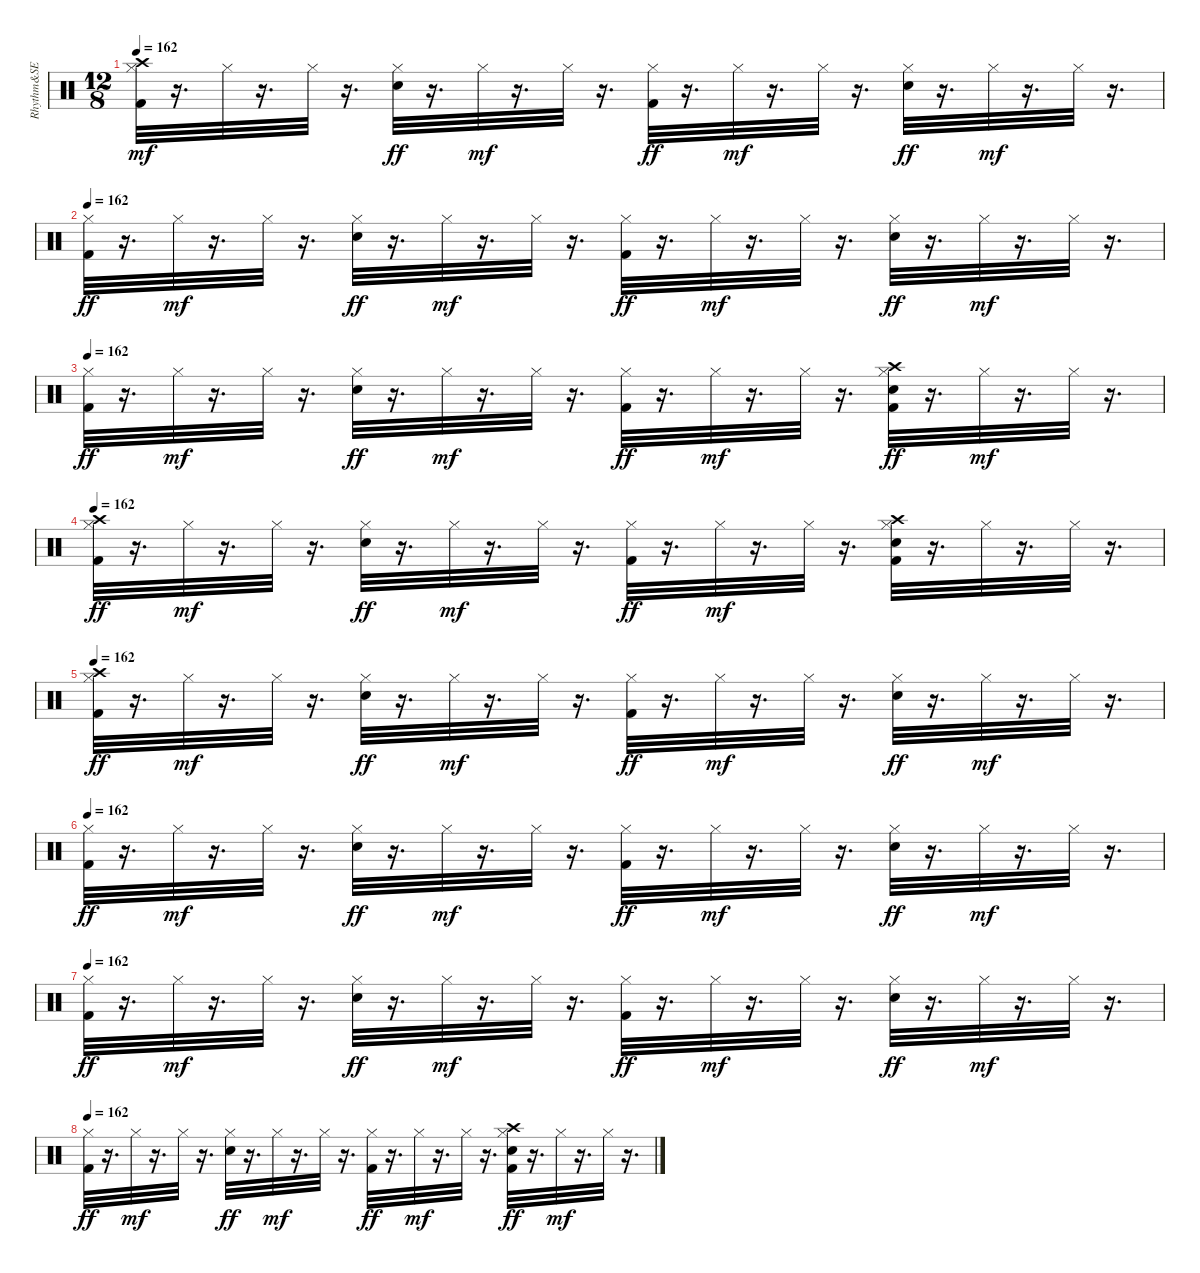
\track ("Rhythm&SE" "Rhythm&SE") {instrument percussion}
\staff {score}
\articulation defaults
\ts (12 8)
\tempo 162
\clef neutral
\ks c
("Kick (hit) 2" "Hi-Hat (closed)" "Crash high (hit)").32{dy mf volume 14 balance 8} r.16{d} "Hi-Hat (closed)".32 r.16{d} "Hi-Hat (closed)".32{volume 14} r.16{d} ("Snare (hit) 2" "Hi-Hat (closed)").32{dy ff} r.16{d} "Hi-Hat (closed)".32{dy mf} r.16{d} "Hi-Hat (closed)".32 r.16{d} ("Kick (hit) 2" "Hi-Hat (closed)").32{dy ff} r.16{d} "Hi-Hat (closed)".32{dy mf} r.16{d} "Hi-Hat (closed)".32 r.16{d} ("Snare (hit) 2" "Hi-Hat (closed)").32{dy ff} r.16{d} "Hi-Hat (closed)".32{dy mf} r.16{d} "Hi-Hat (closed)".32 r.16{d} |
\tempo 162
("Kick (hit) 2" "Hi-Hat (closed)").32{dy ff volume 14 balance 8} r.16{d} "Hi-Hat (closed)".32{dy mf} r.16{d} "Hi-Hat (closed)".32{volume 14} r.16{d} ("Snare (hit) 2" "Hi-Hat (closed)").32{dy ff} r.16{d} "Hi-Hat (closed)".32{dy mf} r.16{d} "Hi-Hat (closed)".32 r.16{d} ("Kick (hit) 2" "Hi-Hat (closed)").32{dy ff} r.16{d} "Hi-Hat (closed)".32{dy mf} r.16{d} "Hi-Hat (closed)".32 r.16{d} ("Snare (hit) 2" "Hi-Hat (closed)").32{dy ff} r.16{d} "Hi-Hat (closed)".32{dy mf} r.16{d} "Hi-Hat (closed)".32 r.16{d} |
\tempo 162
("Kick (hit) 2" "Hi-Hat (closed)").32{dy ff volume 14 balance 8} r.16{d} "Hi-Hat (closed)".32{dy mf} r.16{d} "Hi-Hat (closed)".32{volume 14} r.16{d} ("Snare (hit) 2" "Hi-Hat (closed)").32{dy ff} r.16{d} "Hi-Hat (closed)".32{dy mf} r.16{d} "Hi-Hat (closed)".32 r.16{d} ("Kick (hit) 2" "Hi-Hat (closed)").32{dy ff} r.16{d} "Hi-Hat (closed)".32{dy mf} r.16{d} "Hi-Hat (closed)".32 r.16{d} ("Snare (hit) 2" "Hi-Hat (closed)" "Kick (hit) 2" "Crash high (hit)").32{dy ff} r.16{d} "Hi-Hat (closed)".32{dy mf} r.16{d} "Hi-Hat (closed)".32 r.16{d} |
\tempo 162
("Hi-Hat (closed)" "Kick (hit) 2" "Crash high (hit)").32{dy ff volume 14 balance 8} r.16{d} "Hi-Hat (closed)".32{dy mf} r.16{d} "Hi-Hat (closed)".32{volume 14} r.16{d} ("Snare (hit) 2" "Hi-Hat (closed)").32{dy ff} r.16{d} "Hi-Hat (closed)".32{dy mf} r.16{d} "Hi-Hat (closed)".32 r.16{d} ("Kick (hit) 2" "Hi-Hat (closed)").32{dy ff} r.16{d} "Hi-Hat (closed)".32{dy mf} r.16{d} "Hi-Hat (closed)".32 r.16{d} ("Snare (hit) 2" "Hi-Hat (closed)" "Kick (hit) 2" "Crash high (hit)").32 r.16{d} "Hi-Hat (closed)".32 r.16{d} "Hi-Hat (closed)".32 r.16{d} |
\tempo 162
("Hi-Hat (closed)" "Kick (hit) 2" "Crash high (hit)").32{dy ff volume 14 balance 8} r.16{d} "Hi-Hat (closed)".32{dy mf} r.16{d} "Hi-Hat (closed)".32{volume 14} r.16{d} ("Snare (hit) 2" "Hi-Hat (closed)").32{dy ff} r.16{d} "Hi-Hat (closed)".32{dy mf} r.16{d} "Hi-Hat (closed)".32 r.16{d} ("Kick (hit) 2" "Hi-Hat (closed)").32{dy ff} r.16{d} "Hi-Hat (closed)".32{dy mf} r.16{d} "Hi-Hat (closed)".32 r.16{d} ("Snare (hit) 2" "Hi-Hat (closed)").32{dy ff} r.16{d} "Hi-Hat (closed)".32{dy mf} r.16{d} "Hi-Hat (closed)".32 r.16{d} |
\tempo 162
("Kick (hit) 2" "Hi-Hat (closed)").32{dy ff volume 14 balance 8} r.16{d} "Hi-Hat (closed)".32{dy mf} r.16{d} "Hi-Hat (closed)".32{volume 14} r.16{d} ("Snare (hit) 2" "Hi-Hat (closed)").32{dy ff} r.16{d} "Hi-Hat (closed)".32{dy mf} r.16{d} "Hi-Hat (closed)".32 r.16{d} ("Kick (hit) 2" "Hi-Hat (closed)").32{dy ff} r.16{d} "Hi-Hat (closed)".32{dy mf} r.16{d} "Hi-Hat (closed)".32 r.16{d} ("Snare (hit) 2" "Hi-Hat (closed)").32{dy ff} r.16{d} "Hi-Hat (closed)".32{dy mf} r.16{d} "Hi-Hat (closed)".32 r.16{d} |
\tempo 162
("Kick (hit) 2" "Hi-Hat (closed)").32{dy ff volume 14 balance 8} r.16{d} "Hi-Hat (closed)".32{dy mf} r.16{d} "Hi-Hat (closed)".32{volume 14} r.16{d} ("Snare (hit) 2" "Hi-Hat (closed)").32{dy ff} r.16{d} "Hi-Hat (closed)".32{dy mf} r.16{d} "Hi-Hat (closed)".32 r.16{d} ("Kick (hit) 2" "Hi-Hat (closed)").32{dy ff} r.16{d} "Hi-Hat (closed)".32{dy mf} r.16{d} "Hi-Hat (closed)".32 r.16{d} ("Snare (hit) 2" "Hi-Hat (closed)").32{dy ff} r.16{d} "Hi-Hat (closed)".32{dy mf} r.16{d} "Hi-Hat (closed)".32 r.16{d} |
\tempo 162
("Kick (hit) 2" "Hi-Hat (closed)").32{dy ff volume 14 balance 8} r.16{d} "Hi-Hat (closed)".32{dy mf} r.16{d} "Hi-Hat (closed)".32{volume 14} r.16{d} ("Snare (hit) 2" "Hi-Hat (closed)").32{dy ff} r.16{d} "Hi-Hat (closed)".32{dy mf} r.16{d} "Hi-Hat (closed)".32 r.16{d} ("Kick (hit) 2" "Hi-Hat (closed)").32{dy ff} r.16{d} "Hi-Hat (closed)".32{dy mf} r.16{d} "Hi-Hat (closed)".32 r.16{d} ("Snare (hit) 2" "Hi-Hat (closed)" "Kick (hit) 2" "Crash high (hit)").32{dy ff} r.16{d} "Hi-Hat (closed)".32{dy mf} r.16{d} "Hi-Hat (closed)".32 r.16{d}
